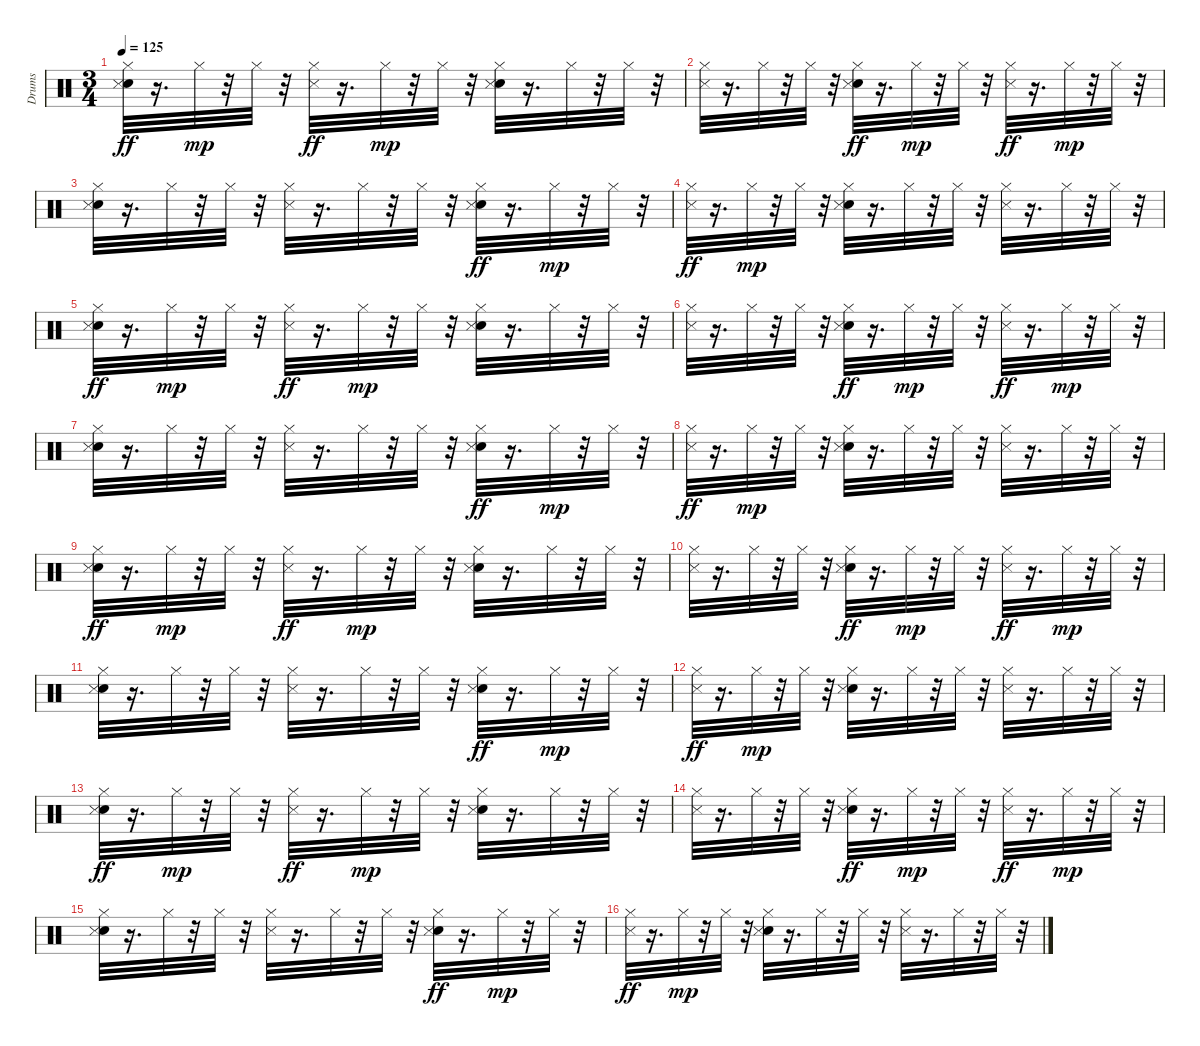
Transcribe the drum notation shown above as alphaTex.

\track ("Drums   " "Drums   ") {instrument percussion}
\staff {score}
\articulation defaults
\ts (3 4)
\tempo 125
\clef neutral
\ks c
("Hi-Hat (closed)" "Snare (hit) 2" "Metronome (hit)").32{dy ff} r.16{d} "Hi-Hat (closed)".32{dy mp} r.32 "Hi-Hat (closed)".32 r.32 ("Hi-Hat (closed)" "Metronome (hit)").32{dy ff} r.16{d} "Hi-Hat (closed)".32{dy mp} r.32 "Hi-Hat (closed)".32 r.32 ("Snare (hit) 2" "Metronome (hit)" "Hi-Hat (closed)").32 r.16{d} "Hi-Hat (closed)".32 r.32 "Hi-Hat (closed)".32 r.32 |
("Metronome (hit)" "Hi-Hat (closed)").32 r.16{d} "Hi-Hat (closed)".32 r.32 "Hi-Hat (closed)".32 r.32 ("Hi-Hat (closed)" "Snare (hit) 2" "Metronome (hit)").32{dy ff} r.16{d} "Hi-Hat (closed)".32{dy mp} r.32 "Hi-Hat (closed)".32 r.32 ("Hi-Hat (closed)" "Metronome (hit)").32{dy ff} r.16{d} "Hi-Hat (closed)".32{dy mp} r.32 "Hi-Hat (closed)".32 r.32 |
("Snare (hit) 2" "Metronome (hit)" "Hi-Hat (closed)").32 r.16{d} "Hi-Hat (closed)".32 r.32 "Hi-Hat (closed)".32 r.32 ("Metronome (hit)" "Hi-Hat (closed)").32 r.16{d} "Hi-Hat (closed)".32 r.32 "Hi-Hat (closed)".32 r.32 ("Hi-Hat (closed)" "Snare (hit) 2" "Metronome (hit)").32{dy ff} r.16{d} "Hi-Hat (closed)".32{dy mp} r.32 "Hi-Hat (closed)".32 r.32 |
("Hi-Hat (closed)" "Metronome (hit)").32{dy ff} r.16{d} "Hi-Hat (closed)".32{dy mp} r.32 "Hi-Hat (closed)".32 r.32 ("Snare (hit) 2" "Metronome (hit)" "Hi-Hat (closed)").32 r.16{d} "Hi-Hat (closed)".32 r.32 "Hi-Hat (closed)".32 r.32 ("Metronome (hit)" "Hi-Hat (closed)").32 r.16{d} "Hi-Hat (closed)".32 r.32 "Hi-Hat (closed)".32 r.32 |
("Hi-Hat (closed)" "Snare (hit) 2" "Metronome (hit)").32{dy ff} r.16{d} "Hi-Hat (closed)".32{dy mp} r.32 "Hi-Hat (closed)".32 r.32 ("Hi-Hat (closed)" "Metronome (hit)").32{dy ff} r.16{d} "Hi-Hat (closed)".32{dy mp} r.32 "Hi-Hat (closed)".32 r.32 ("Snare (hit) 2" "Metronome (hit)" "Hi-Hat (closed)").32 r.16{d} "Hi-Hat (closed)".32 r.32 "Hi-Hat (closed)".32 r.32 |
("Metronome (hit)" "Hi-Hat (closed)").32 r.16{d} "Hi-Hat (closed)".32 r.32 "Hi-Hat (closed)".32 r.32 ("Hi-Hat (closed)" "Snare (hit) 2" "Metronome (hit)").32{dy ff} r.16{d} "Hi-Hat (closed)".32{dy mp} r.32 "Hi-Hat (closed)".32 r.32 ("Hi-Hat (closed)" "Metronome (hit)").32{dy ff} r.16{d} "Hi-Hat (closed)".32{dy mp} r.32 "Hi-Hat (closed)".32 r.32 |
("Snare (hit) 2" "Metronome (hit)" "Hi-Hat (closed)").32 r.16{d} "Hi-Hat (closed)".32 r.32 "Hi-Hat (closed)".32 r.32 ("Metronome (hit)" "Hi-Hat (closed)").32 r.16{d} "Hi-Hat (closed)".32 r.32 "Hi-Hat (closed)".32 r.32 ("Hi-Hat (closed)" "Snare (hit) 2" "Metronome (hit)").32{dy ff} r.16{d} "Hi-Hat (closed)".32{dy mp} r.32 "Hi-Hat (closed)".32 r.32 |
("Hi-Hat (closed)" "Metronome (hit)").32{dy ff} r.16{d} "Hi-Hat (closed)".32{dy mp} r.32 "Hi-Hat (closed)".32 r.32 ("Snare (hit) 2" "Metronome (hit)" "Hi-Hat (closed)").32 r.16{d} "Hi-Hat (closed)".32 r.32 "Hi-Hat (closed)".32 r.32 ("Metronome (hit)" "Hi-Hat (closed)").32 r.16{d} "Hi-Hat (closed)".32 r.32 "Hi-Hat (closed)".32 r.32 |
("Hi-Hat (closed)" "Snare (hit) 2" "Metronome (hit)").32{dy ff} r.16{d} "Hi-Hat (closed)".32{dy mp} r.32 "Hi-Hat (closed)".32 r.32 ("Hi-Hat (closed)" "Metronome (hit)").32{dy ff} r.16{d} "Hi-Hat (closed)".32{dy mp} r.32 "Hi-Hat (closed)".32 r.32 ("Snare (hit) 2" "Metronome (hit)" "Hi-Hat (closed)").32 r.16{d} "Hi-Hat (closed)".32 r.32 "Hi-Hat (closed)".32 r.32 |
("Metronome (hit)" "Hi-Hat (closed)").32 r.16{d} "Hi-Hat (closed)".32 r.32 "Hi-Hat (closed)".32 r.32 ("Hi-Hat (closed)" "Snare (hit) 2" "Metronome (hit)").32{dy ff} r.16{d} "Hi-Hat (closed)".32{dy mp} r.32 "Hi-Hat (closed)".32 r.32 ("Hi-Hat (closed)" "Metronome (hit)").32{dy ff} r.16{d} "Hi-Hat (closed)".32{dy mp} r.32 "Hi-Hat (closed)".32 r.32 |
("Snare (hit) 2" "Metronome (hit)" "Hi-Hat (closed)").32 r.16{d} "Hi-Hat (closed)".32 r.32 "Hi-Hat (closed)".32 r.32 ("Metronome (hit)" "Hi-Hat (closed)").32 r.16{d} "Hi-Hat (closed)".32 r.32 "Hi-Hat (closed)".32 r.32 ("Hi-Hat (closed)" "Snare (hit) 2" "Metronome (hit)").32{dy ff} r.16{d} "Hi-Hat (closed)".32{dy mp} r.32 "Hi-Hat (closed)".32 r.32 |
("Hi-Hat (closed)" "Metronome (hit)").32{dy ff} r.16{d} "Hi-Hat (closed)".32{dy mp} r.32 "Hi-Hat (closed)".32 r.32 ("Snare (hit) 2" "Metronome (hit)" "Hi-Hat (closed)").32 r.16{d} "Hi-Hat (closed)".32 r.32 "Hi-Hat (closed)".32 r.32 ("Metronome (hit)" "Hi-Hat (closed)").32 r.16{d} "Hi-Hat (closed)".32 r.32 "Hi-Hat (closed)".32 r.32 |
("Hi-Hat (closed)" "Snare (hit) 2" "Metronome (hit)").32{dy ff} r.16{d} "Hi-Hat (closed)".32{dy mp} r.32 "Hi-Hat (closed)".32 r.32 ("Hi-Hat (closed)" "Metronome (hit)").32{dy ff} r.16{d} "Hi-Hat (closed)".32{dy mp} r.32 "Hi-Hat (closed)".32 r.32 ("Snare (hit) 2" "Metronome (hit)" "Hi-Hat (closed)").32 r.16{d} "Hi-Hat (closed)".32 r.32 "Hi-Hat (closed)".32 r.32 |
("Metronome (hit)" "Hi-Hat (closed)").32 r.16{d} "Hi-Hat (closed)".32 r.32 "Hi-Hat (closed)".32 r.32 ("Hi-Hat (closed)" "Snare (hit) 2" "Metronome (hit)").32{dy ff} r.16{d} "Hi-Hat (closed)".32{dy mp} r.32 "Hi-Hat (closed)".32 r.32 ("Hi-Hat (closed)" "Metronome (hit)").32{dy ff} r.16{d} "Hi-Hat (closed)".32{dy mp} r.32 "Hi-Hat (closed)".32 r.32 |
("Snare (hit) 2" "Metronome (hit)" "Hi-Hat (closed)").32 r.16{d} "Hi-Hat (closed)".32 r.32 "Hi-Hat (closed)".32 r.32 ("Metronome (hit)" "Hi-Hat (closed)").32 r.16{d} "Hi-Hat (closed)".32 r.32 "Hi-Hat (closed)".32 r.32 ("Hi-Hat (closed)" "Snare (hit) 2" "Metronome (hit)").32{dy ff} r.16{d} "Hi-Hat (closed)".32{dy mp} r.32 "Hi-Hat (closed)".32 r.32 |
("Hi-Hat (closed)" "Metronome (hit)").32{dy ff} r.16{d} "Hi-Hat (closed)".32{dy mp} r.32 "Hi-Hat (closed)".32 r.32 ("Snare (hit) 2" "Metronome (hit)" "Hi-Hat (closed)").32 r.16{d} "Hi-Hat (closed)".32 r.32 "Hi-Hat (closed)".32 r.32 ("Metronome (hit)" "Hi-Hat (closed)").32 r.16{d} "Hi-Hat (closed)".32 r.32 "Hi-Hat (closed)".32 r.32
